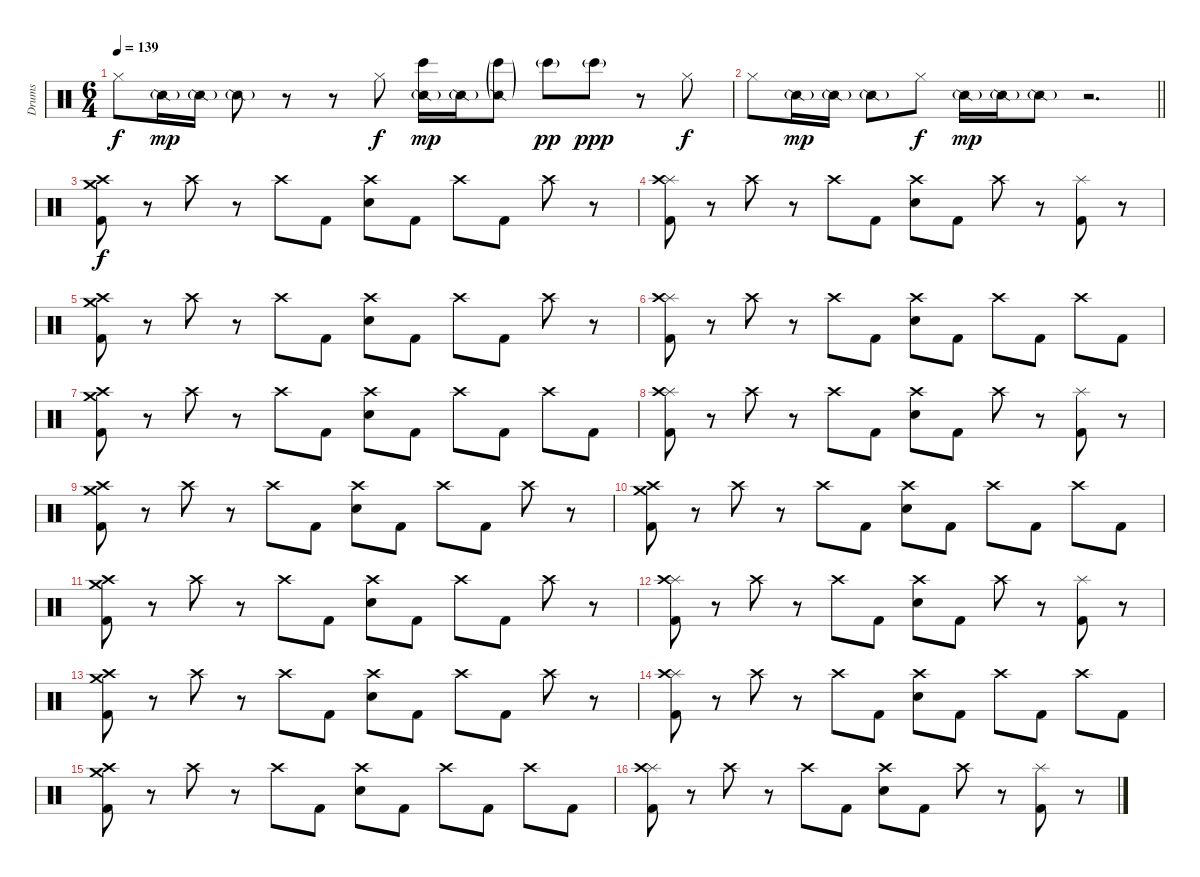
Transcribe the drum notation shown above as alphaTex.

\track ("Drums" "Drums") {instrument percussion}
\staff {score}
\articulation defaults
\ts (6 4)
\tempo 139
\clef neutral
\ks c "Hi-Hat (closed)".8{dy f} "Snare (side stick) 2"{g}.16{dy mp} "Snare (side stick) 2"{g}.16 "Snare (side stick) 2"{g}.8
r.8 r.8 "Hi-Hat (closed)".8{dy f} ("Bongo High (hit)" "Snare (side stick) 2"{g}).16{dy mp} "Snare (side stick) 2"{g}.16 ("Bongo High (hit)"{g} "Snare (side stick) 2"{g}).8 "Bongo High (hit)"{g}.8{dy pp} "Bongo High (hit)"{g}.8{dy ppp} r.8 "Hi-Hat (closed)".8{dy f} |
\barLineRight lightlight "Hi-Hat (closed)".8 "Snare (side stick) 2"{g}.16{dy mp} "Snare (side stick) 2"{g}.16 "Snare (side stick) 2"{g}.8 "Hi-Hat (closed)".8{dy f} "Snare (side stick) 2"{g}.16{dy mp} "Snare (side stick) 2"{g}.16 "Snare (side stick) 2"{g}.8
r.2{d} |
\section ("" "")
("Crash medium (hit)" "Crash high (hit)" "Kick (hit) 2").8{dy f volume 13} r.8 "Crash high (hit)".8 r.8 "Crash high (hit)".8 "Kick (hit) 2".8 ("Crash high (hit)" "Electric Snare (hit)").8 "Kick (hit) 2".8 "Crash high (hit)".8 "Kick (hit) 2".8 "Crash high (hit)".8 r.8 |
("Splash (hit)" "Crash high (hit)" "Kick (hit) 2").8 r.8 "Crash high (hit)".8 r.8 "Crash high (hit)".8 "Kick (hit) 2".8 ("Crash high (hit)" "Electric Snare (hit)").8 "Kick (hit) 2".8 "Crash high (hit)".8 r.8 ("Splash (hit)" "Kick (hit) 2").8 r.8 |
("Crash medium (hit)" "Crash high (hit)" "Kick (hit) 2").8 r.8 "Crash high (hit)".8 r.8 "Crash high (hit)".8 "Kick (hit) 2".8 ("Crash high (hit)" "Electric Snare (hit)").8 "Kick (hit) 2".8 "Crash high (hit)".8 "Kick (hit) 2".8 "Crash high (hit)".8 r.8 |
("Splash (hit)" "Crash high (hit)" "Kick (hit) 2").8 r.8 "Crash high (hit)".8 r.8 "Crash high (hit)".8 "Kick (hit) 2".8 ("Crash high (hit)" "Electric Snare (hit)").8 "Kick (hit) 2".8 "Crash high (hit)".8 "Kick (hit) 2".8 "Crash high (hit)".8 "Kick (hit) 2".8 |
("Crash medium (hit)" "Crash high (hit)" "Kick (hit) 2").8 r.8 "Crash high (hit)".8 r.8 "Crash high (hit)".8 "Kick (hit) 2".8 ("Crash high (hit)" "Electric Snare (hit)").8 "Kick (hit) 2".8 "Crash high (hit)".8 "Kick (hit) 2".8 "Crash high (hit)".8 "Kick (hit) 2".8 |
("Splash (hit)" "Crash high (hit)" "Kick (hit) 2").8 r.8 "Crash high (hit)".8 r.8 "Crash high (hit)".8 "Kick (hit) 2".8 ("Crash high (hit)" "Electric Snare (hit)").8 "Kick (hit) 2".8 "Crash high (hit)".8 r.8 ("Splash (hit)" "Kick (hit) 2").8 r.8 |
("Crash medium (hit)" "Crash high (hit)" "Kick (hit) 2").8 r.8 "Crash high (hit)".8 r.8 "Crash high (hit)".8 "Kick (hit) 2".8 ("Crash high (hit)" "Electric Snare (hit)").8 "Kick (hit) 2".8 "Crash high (hit)".8 "Kick (hit) 2".8 "Crash high (hit)".8 r.8 |
("Crash medium (hit)" "Crash high (hit)" "Kick (hit) 2").8 r.8 "Crash high (hit)".8 r.8 "Crash high (hit)".8 "Kick (hit) 2".8 ("Crash high (hit)" "Electric Snare (hit)").8 "Kick (hit) 2".8 "Crash high (hit)".8 "Kick (hit) 2".8 "Crash high (hit)".8 "Kick (hit) 2".8 |
("Crash medium (hit)" "Crash high (hit)" "Kick (hit) 2").8{volume 13} r.8 "Crash high (hit)".8 r.8 "Crash high (hit)".8 "Kick (hit) 2".8 ("Crash high (hit)" "Electric Snare (hit)").8 "Kick (hit) 2".8 "Crash high (hit)".8 "Kick (hit) 2".8 "Crash high (hit)".8 r.8 |
("Splash (hit)" "Crash high (hit)" "Kick (hit) 2").8 r.8 "Crash high (hit)".8 r.8 "Crash high (hit)".8 "Kick (hit) 2".8 ("Crash high (hit)" "Electric Snare (hit)").8 "Kick (hit) 2".8 "Crash high (hit)".8 r.8 ("Splash (hit)" "Kick (hit) 2").8 r.8 |
("Crash medium (hit)" "Crash high (hit)" "Kick (hit) 2").8 r.8 "Crash high (hit)".8 r.8 "Crash high (hit)".8 "Kick (hit) 2".8 ("Crash high (hit)" "Electric Snare (hit)").8 "Kick (hit) 2".8 "Crash high (hit)".8 "Kick (hit) 2".8 "Crash high (hit)".8 r.8 |
("Splash (hit)" "Crash high (hit)" "Kick (hit) 2").8 r.8 "Crash high (hit)".8 r.8 "Crash high (hit)".8 "Kick (hit) 2".8 ("Crash high (hit)" "Electric Snare (hit)").8 "Kick (hit) 2".8 "Crash high (hit)".8 "Kick (hit) 2".8 "Crash high (hit)".8 "Kick (hit) 2".8 |
("Crash medium (hit)" "Crash high (hit)" "Kick (hit) 2").8{volume 13} r.8 "Crash high (hit)".8 r.8 "Crash high (hit)".8 "Kick (hit) 2".8 ("Crash high (hit)" "Electric Snare (hit)").8 "Kick (hit) 2".8 "Crash high (hit)".8 "Kick (hit) 2".8 "Crash high (hit)".8 "Kick (hit) 2".8 |
("Splash (hit)" "Crash high (hit)" "Kick (hit) 2").8 r.8 "Crash high (hit)".8 r.8 "Crash high (hit)".8 "Kick (hit) 2".8 ("Crash high (hit)" "Electric Snare (hit)").8 "Kick (hit) 2".8 "Crash high (hit)".8 r.8 ("Splash (hit)" "Kick (hit) 2").8 r.8
